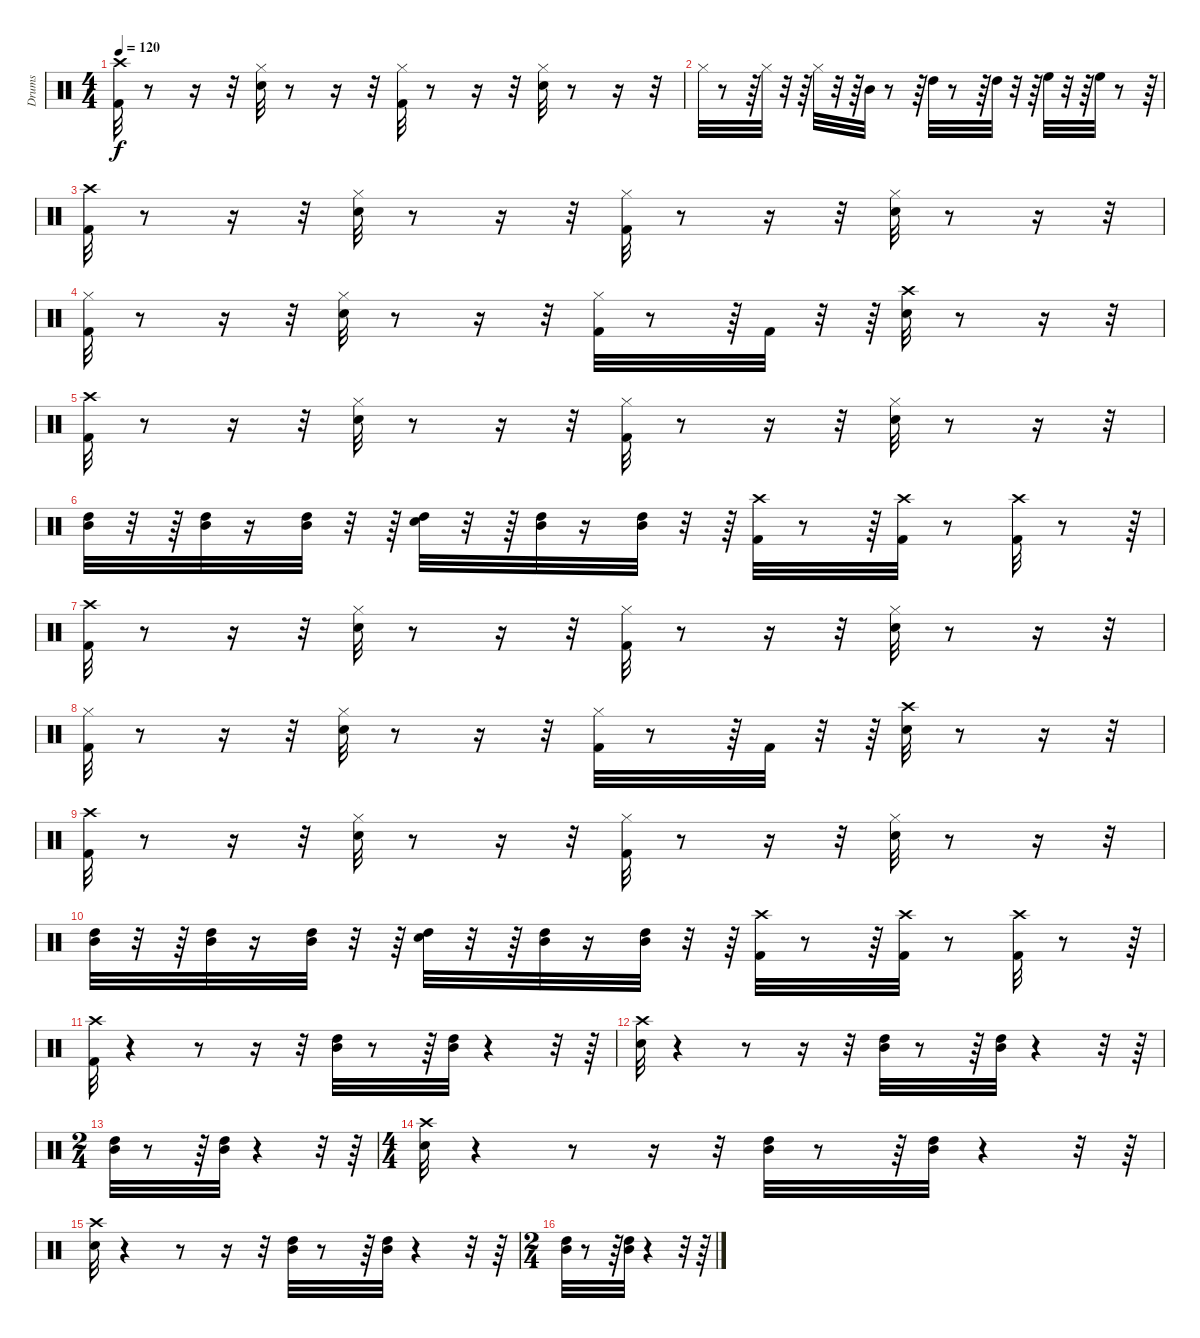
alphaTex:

\track ("Drums" "Drums") {instrument percussion}
\staff {score}
\articulation defaults
\ts (4 4)
\tempo 120
\clef neutral
\ks c
("Kick (hit) 2" "Crash high (hit)").32{dy f} r.8 r.16 r.32 ("Hi-Hat (closed)" "Snare (hit) 2").32 r.8 r.16 r.32 ("Hi-Hat (closed)" "Kick (hit) 2").32 r.8 r.16 r.32 ("Hi-Hat (closed)" "Snare (hit) 2").32 r.8 r.16 r.32 |
"Hi-Hat (closed)".32 r.8 r.64 "Hi-Hat (closed)".32 r.32 r.64 "Hi-Hat (closed)".32 r.32 r.64 "Mid Tom (hit)".32 r.8 r.64 "High Tom (hit)".32 r.8 r.64 "High Tom (hit)".32 r.32 r.64 "High Floor Tom (hit)".32 r.32 r.64 "High Floor Tom (hit)".32 r.8 r.64 |
("Kick (hit) 2" "Crash high (hit)").32 r.8 r.16 r.32 ("Snare (hit) 2" "Hi-Hat (closed)").32 r.8 r.16 r.32 ("Kick (hit) 2" "Hi-Hat (closed)").32 r.8 r.16 r.32 ("Snare (hit) 2" "Hi-Hat (closed)").32 r.8 r.16 r.32 |
("Hi-Hat (closed)" "Kick (hit) 2").32 r.8 r.16 r.32 ("Snare (hit) 2" "Hi-Hat (closed)").32 r.8 r.16 r.32 ("Kick (hit) 2" "Hi-Hat (closed)").32 r.8 r.64 "Kick (hit) 2".32 r.32 r.64 ("Snare (hit) 2" "Crash high (hit)").32 r.8 r.16 r.32 |
("Crash high (hit)" "Kick (hit) 2").32 r.8 r.16 r.32 ("Snare (hit) 2" "Hi-Hat (closed)").32 r.8 r.16 r.32 ("Hi-Hat (closed)" "Kick (hit) 2").32 r.8 r.16 r.32 ("Snare (hit) 2" "Hi-Hat (closed)").32 r.8 r.16 r.32 |
("High Tom (hit)" "Mid Tom (hit)").32 r.32 r.64 ("High Tom (hit)" "Mid Tom (hit)").32 r.16 ("High Tom (hit)" "Mid Tom (hit)").32 r.32 r.64 ("Snare (hit) 2" "High Tom (hit)").32 r.32 r.64 ("High Tom (hit)" "Mid Tom (hit)").32 r.16 ("High Tom (hit)" "Mid Tom (hit)").32 r.32 r.64 ("Kick (hit) 2" "Crash high (hit)").32 r.8 r.64 ("Kick (hit) 2" "Crash high (hit)").32 r.8 ("Kick (hit) 2" "Crash high (hit)").32 r.8 r.64 |
("Kick (hit) 2" "Crash high (hit)").32 r.8 r.16 r.32 ("Snare (hit) 2" "Hi-Hat (closed)").32 r.8 r.16 r.32 ("Kick (hit) 2" "Hi-Hat (closed)").32 r.8 r.16 r.32 ("Snare (hit) 2" "Hi-Hat (closed)").32 r.8 r.16 r.32 |
("Kick (hit) 2" "Hi-Hat (closed)").32 r.8 r.16 r.32 ("Snare (hit) 2" "Hi-Hat (closed)").32 r.8 r.16 r.32 ("Kick (hit) 2" "Hi-Hat (closed)").32 r.8 r.64 "Kick (hit) 2".32 r.32 r.64 ("Snare (hit) 2" "Crash high (hit)").32 r.8 r.16 r.32 |
("Crash high (hit)" "Kick (hit) 2").32 r.8 r.16 r.32 ("Snare (hit) 2" "Hi-Hat (closed)").32 r.8 r.16 r.32 ("Hi-Hat (closed)" "Kick (hit) 2").32 r.8 r.16 r.32 ("Snare (hit) 2" "Hi-Hat (closed)").32 r.8 r.16 r.32 |
("High Tom (hit)" "Mid Tom (hit)").32 r.32 r.64 ("High Tom (hit)" "Mid Tom (hit)").32 r.16 ("High Tom (hit)" "Mid Tom (hit)").32 r.32 r.64 ("Snare (hit) 2" "High Tom (hit)").32 r.32 r.64 ("High Tom (hit)" "Mid Tom (hit)").32 r.16 ("High Tom (hit)" "Mid Tom (hit)").32 r.32 r.64 ("Kick (hit) 2" "Crash high (hit)").32 r.8 r.64 ("Kick (hit) 2" "Crash high (hit)").32 r.8 ("Kick (hit) 2" "Crash high (hit)").32 r.8 r.64 |
("Kick (hit) 2" "Crash high (hit)").32 r.4 r.8 r.16 r.32 ("Mid Tom (hit)" "High Tom (hit)").32 r.8 r.64 ("High Tom (hit)" "Mid Tom (hit)").32 r.4 r.32 r.64 |
("Snare (hit) 2" "Crash high (hit)").32 r.4 r.8 r.16 r.32 ("Mid Tom (hit)" "High Tom (hit)").32 r.8 r.64 ("Mid Tom (hit)" "High Tom (hit)").32 r.4 r.32 r.64 |
\ts (2 4)
("Mid Tom (hit)" "High Tom (hit)").32 r.8 r.64 ("Mid Tom (hit)" "High Tom (hit)").32 r.4 r.32 r.64 |
\ts (4 4)
("Snare (hit) 2" "Crash high (hit)").32 r.4 r.8 r.16 r.32 ("Mid Tom (hit)" "High Tom (hit)").32 r.8 r.64 ("Mid Tom (hit)" "High Tom (hit)").32 r.4 r.32 r.64 |
("Snare (hit) 2" "Crash high (hit)").32 r.4 r.8 r.16 r.32 ("Mid Tom (hit)" "High Tom (hit)").32 r.8 r.64 ("Mid Tom (hit)" "High Tom (hit)").32 r.4 r.32 r.64 |
\ts (2 4)
("Mid Tom (hit)" "High Tom (hit)").32 r.8 r.64 ("Mid Tom (hit)" "High Tom (hit)").32 r.4 r.32 r.64
